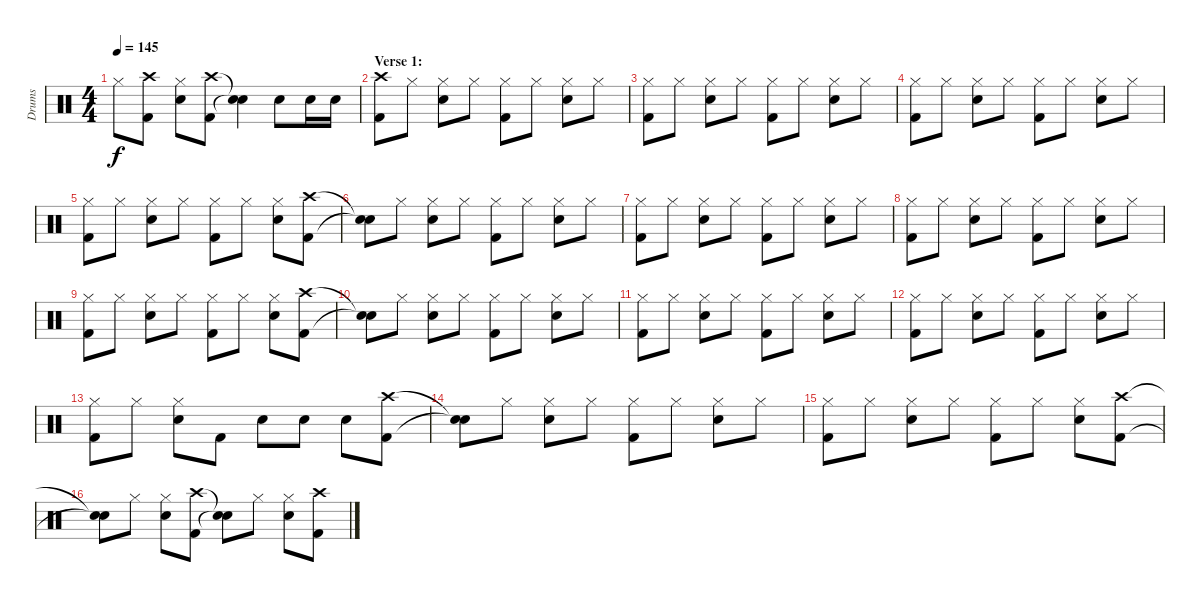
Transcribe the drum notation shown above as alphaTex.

\track ("Drums" "Drums") {instrument percussion}
\staff {score}
\articulation defaults
\ts (4 4)
\tempo 145
\clef neutral
\ks c "Hi-Hat (closed)".8{dy f}
("Crash high (hit)" "Kick (hit) 2").8 ("Hi-Hat (closed)" "Electric Snare (hit)").8 ("Crash high (hit)" "Kick (hit) 2").8 ("Snare (hit)"{t} "Snare (hit)"{t}).4 "Electric Snare (hit)".8 "Electric Snare (hit)".16 "Electric Snare (hit)".16 |
\section ("" "Verse 1:")
("Crash high (hit)" "Kick (hit) 2").8 "Hi-Hat (closed)".8 ("Hi-Hat (closed)" "Electric Snare (hit)").8 "Hi-Hat (closed)".8 ("Hi-Hat (closed)" "Kick (hit) 2").8 "Hi-Hat (closed)".8 ("Hi-Hat (closed)" "Electric Snare (hit)").8 "Hi-Hat (closed)".8 |
("Hi-Hat (closed)" "Kick (hit) 2").8 "Hi-Hat (closed)".8 ("Hi-Hat (closed)" "Electric Snare (hit)").8 "Hi-Hat (closed)".8 ("Hi-Hat (closed)" "Kick (hit) 2").8 "Hi-Hat (closed)".8 ("Hi-Hat (closed)" "Electric Snare (hit)").8 "Hi-Hat (closed)".8 |
("Hi-Hat (closed)" "Kick (hit) 2").8 "Hi-Hat (closed)".8 ("Hi-Hat (closed)" "Electric Snare (hit)").8 "Hi-Hat (closed)".8 ("Hi-Hat (closed)" "Kick (hit) 2").8 "Hi-Hat (closed)".8 ("Hi-Hat (closed)" "Electric Snare (hit)").8 "Hi-Hat (closed)".8 |
("Hi-Hat (closed)" "Kick (hit) 2").8 "Hi-Hat (closed)".8 ("Hi-Hat (closed)" "Electric Snare (hit)").8 "Hi-Hat (closed)".8 ("Hi-Hat (closed)" "Kick (hit) 2").8 "Hi-Hat (closed)".8 ("Hi-Hat (closed)" "Electric Snare (hit)").8 ("Crash high (hit)" "Kick (hit) 2").8 |
("Snare (hit)"{t} "Snare (hit)"{t}).8 "Hi-Hat (closed)".8 ("Hi-Hat (closed)" "Electric Snare (hit)").8 "Hi-Hat (closed)".8 ("Hi-Hat (closed)" "Kick (hit) 2").8 "Hi-Hat (closed)".8 ("Hi-Hat (closed)" "Electric Snare (hit)").8 "Hi-Hat (closed)".8 |
("Hi-Hat (closed)" "Kick (hit) 2").8 "Hi-Hat (closed)".8 ("Hi-Hat (closed)" "Electric Snare (hit)").8 "Hi-Hat (closed)".8 ("Hi-Hat (closed)" "Kick (hit) 2").8 "Hi-Hat (closed)".8 ("Hi-Hat (closed)" "Electric Snare (hit)").8 "Hi-Hat (closed)".8 |
("Hi-Hat (closed)" "Kick (hit) 2").8 "Hi-Hat (closed)".8 ("Hi-Hat (closed)" "Electric Snare (hit)").8 "Hi-Hat (closed)".8 ("Hi-Hat (closed)" "Kick (hit) 2").8 "Hi-Hat (closed)".8 ("Hi-Hat (closed)" "Electric Snare (hit)").8 "Hi-Hat (closed)".8 |
("Hi-Hat (closed)" "Kick (hit) 2").8 "Hi-Hat (closed)".8 ("Hi-Hat (closed)" "Electric Snare (hit)").8 "Hi-Hat (closed)".8 ("Hi-Hat (closed)" "Kick (hit) 2").8 "Hi-Hat (closed)".8 ("Hi-Hat (closed)" "Electric Snare (hit)").8 ("Crash high (hit)" "Kick (hit) 2").8 |
("Snare (hit)"{t} "Snare (hit)"{t}).8 "Hi-Hat (closed)".8 ("Hi-Hat (closed)" "Electric Snare (hit)").8 "Hi-Hat (closed)".8 ("Hi-Hat (closed)" "Kick (hit) 2").8 "Hi-Hat (closed)".8 ("Hi-Hat (closed)" "Electric Snare (hit)").8 "Hi-Hat (closed)".8 |
("Hi-Hat (closed)" "Kick (hit) 2").8 "Hi-Hat (closed)".8 ("Hi-Hat (closed)" "Electric Snare (hit)").8 "Hi-Hat (closed)".8 ("Hi-Hat (closed)" "Kick (hit) 2").8 "Hi-Hat (closed)".8 ("Hi-Hat (closed)" "Electric Snare (hit)").8 "Hi-Hat (closed)".8 |
("Hi-Hat (closed)" "Kick (hit) 2").8 "Hi-Hat (closed)".8 ("Hi-Hat (closed)" "Electric Snare (hit)").8 "Hi-Hat (closed)".8 ("Hi-Hat (closed)" "Kick (hit) 2").8 "Hi-Hat (closed)".8 ("Hi-Hat (closed)" "Electric Snare (hit)").8 "Hi-Hat (closed)".8 |
("Hi-Hat (closed)" "Kick (hit) 2").8 "Hi-Hat (closed)".8 ("Hi-Hat (closed)" "Electric Snare (hit)").8 "Kick (hit) 2".8 "Electric Snare (hit)".8 "Electric Snare (hit)".8 "Electric Snare (hit)".8 ("Crash high (hit)" "Kick (hit) 2").8 |
("Snare (hit)"{t} "Snare (hit)"{t}).8 "Hi-Hat (closed)".8 ("Hi-Hat (closed)" "Electric Snare (hit)").8 "Hi-Hat (closed)".8 ("Hi-Hat (closed)" "Kick (hit) 2").8 "Hi-Hat (closed)".8 ("Hi-Hat (closed)" "Electric Snare (hit)").8 "Hi-Hat (closed)".8 |
("Hi-Hat (closed)" "Kick (hit) 2").8 "Hi-Hat (closed)".8 ("Hi-Hat (closed)" "Electric Snare (hit)").8 "Hi-Hat (closed)".8 ("Hi-Hat (closed)" "Kick (hit) 2").8 "Hi-Hat (closed)".8 ("Hi-Hat (closed)" "Electric Snare (hit)").8 ("Crash high (hit)" "Kick (hit) 2").8 |
("Snare (hit)"{t} "Snare (hit)"{t}).8 "Hi-Hat (closed)".8 ("Hi-Hat (closed)" "Electric Snare (hit)").8 ("Crash high (hit)" "Kick (hit) 2").8 ("Snare (hit)"{t} "Snare (hit)"{t}).8 "Hi-Hat (closed)".8 ("Hi-Hat (closed)" "Electric Snare (hit)").8 ("Crash high (hit)" "Kick (hit) 2").8
